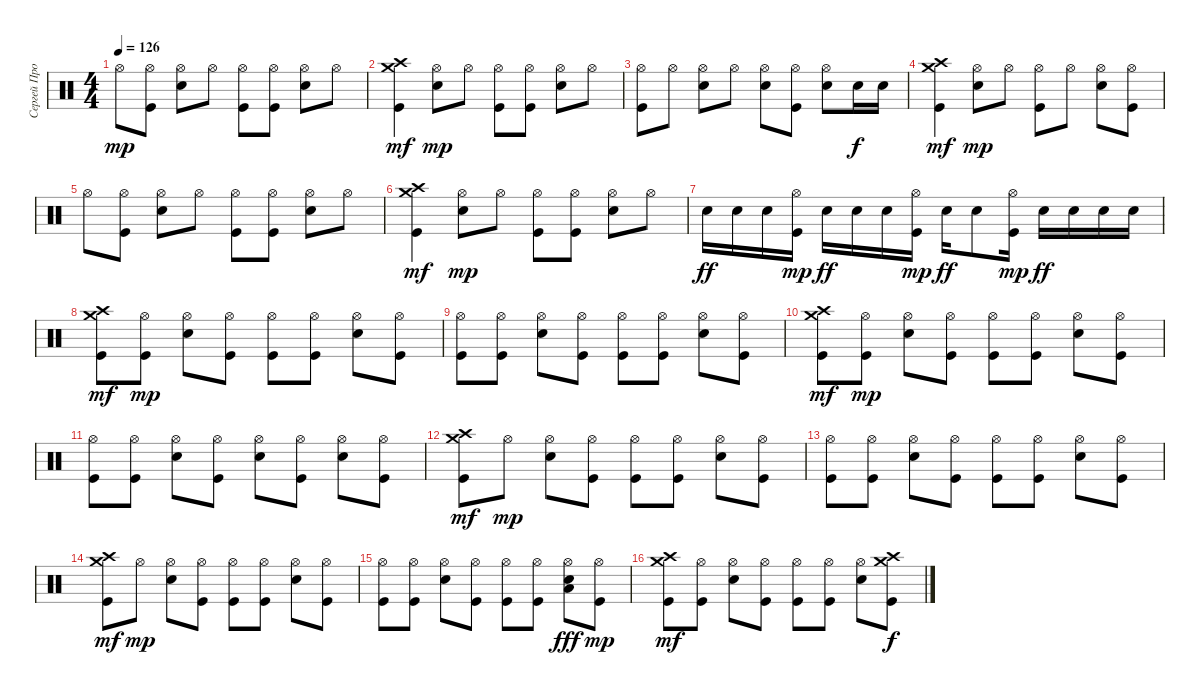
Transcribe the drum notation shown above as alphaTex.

\track ("Сергей Прокофьев (Барабаны)" "Сергей Про") {instrument percussion}
\staff {score}
\articulation defaults
\ts (4 4)
\tempo 126
\clef neutral
\ks c "Hi-Hat (open)".8{dy mp}
("Hi-Hat (open)" "Kick (hit)").8 ("Hi-Hat (open)" "Electric Snare (hit)").8 "Hi-Hat (open)".8 ("Hi-Hat (open)" "Kick (hit)").8 ("Hi-Hat (open)" "Kick (hit)").8 ("Hi-Hat (open)" "Electric Snare (hit)").8 "Hi-Hat (open)".8 |
("Crash high (hit)" "Crash medium (hit)" "Kick (hit)").4{dy mf} ("Hi-Hat (open)" "Electric Snare (hit)").8{dy mp} "Hi-Hat (open)".8 ("Hi-Hat (open)" "Kick (hit)").8 ("Hi-Hat (open)" "Kick (hit)").8 ("Hi-Hat (open)" "Electric Snare (hit)").8 "Hi-Hat (open)".8 |
("Hi-Hat (open)" "Kick (hit)").8 "Hi-Hat (open)".8 ("Hi-Hat (open)" "Electric Snare (hit)").8 "Hi-Hat (open)".8 ("Hi-Hat (open)" "Electric Snare (hit)").8 ("Hi-Hat (open)" "Kick (hit)").8 ("Hi-Hat (open)" "Electric Snare (hit)").8 "Electric Snare (hit)".16{dy f} "Electric Snare (hit)".16 |
("Crash high (hit)" "Crash medium (hit)" "Kick (hit)").4{dy mf} ("Hi-Hat (open)" "Electric Snare (hit)").8{dy mp} "Hi-Hat (open)".8 ("Hi-Hat (open)" "Kick (hit)").8 "Hi-Hat (open)".8 ("Hi-Hat (open)" "Electric Snare (hit)").8 ("Hi-Hat (open)" "Kick (hit)").8 |
"Hi-Hat (open)".8 ("Hi-Hat (open)" "Kick (hit)").8 ("Hi-Hat (open)" "Electric Snare (hit)").8 "Hi-Hat (open)".8 ("Hi-Hat (open)" "Kick (hit)").8 ("Hi-Hat (open)" "Kick (hit)").8 ("Hi-Hat (open)" "Electric Snare (hit)").8 "Hi-Hat (open)".8 |
("Crash high (hit)" "Crash medium (hit)" "Kick (hit)").4{dy mf} ("Hi-Hat (open)" "Electric Snare (hit)").8{dy mp} "Hi-Hat (open)".8 ("Hi-Hat (open)" "Kick (hit)").8 ("Hi-Hat (open)" "Kick (hit)").8 ("Hi-Hat (open)" "Electric Snare (hit)").8 "Hi-Hat (open)".8 |
\section ("" "")
"Electric Snare (hit)".16{dy ff volume 16} "Electric Snare (hit)".16 "Electric Snare (hit)".16 ("Hi-Hat (open)" "Kick (hit)").16{dy mp} "Electric Snare (hit)".16{dy ff} "Electric Snare (hit)".16 "Electric Snare (hit)".16 ("Hi-Hat (open)" "Kick (hit)").16{dy mp} "Electric Snare (hit)".16{dy ff} "Electric Snare (hit)".8 ("Hi-Hat (open)" "Kick (hit)").16{dy mp} "Electric Snare (hit)".16{dy ff} "Electric Snare (hit)".16 "Electric Snare (hit)".16 "Electric Snare (hit)".16 |
("Crash high (hit)" "Crash medium (hit)" "Kick (hit)").8{dy mf} ("Hi-Hat (open)" "Kick (hit)").8{dy mp} ("Hi-Hat (open)" "Electric Snare (hit)").8 ("Hi-Hat (open)" "Kick (hit)").8 ("Hi-Hat (open)" "Kick (hit)").8 ("Hi-Hat (open)" "Kick (hit)").8 ("Hi-Hat (open)" "Electric Snare (hit)").8 ("Hi-Hat (open)" "Kick (hit)").8 |
("Hi-Hat (open)" "Kick (hit)").8 ("Hi-Hat (open)" "Kick (hit)").8 ("Hi-Hat (open)" "Electric Snare (hit)").8 ("Hi-Hat (open)" "Kick (hit)").8 ("Hi-Hat (open)" "Kick (hit)").8 ("Hi-Hat (open)" "Kick (hit)").8 ("Hi-Hat (open)" "Electric Snare (hit)").8 ("Hi-Hat (open)" "Kick (hit)").8 |
("Crash high (hit)" "Crash medium (hit)" "Kick (hit)").8{dy mf} ("Hi-Hat (open)" "Kick (hit)").8{dy mp} ("Hi-Hat (open)" "Electric Snare (hit)").8 ("Hi-Hat (open)" "Kick (hit)").8 ("Hi-Hat (open)" "Kick (hit)").8 ("Hi-Hat (open)" "Kick (hit)").8 ("Hi-Hat (open)" "Electric Snare (hit)").8 ("Hi-Hat (open)" "Kick (hit)").8 |
("Hi-Hat (open)" "Kick (hit)").8 ("Hi-Hat (open)" "Kick (hit)").8 ("Hi-Hat (open)" "Electric Snare (hit)").8 ("Hi-Hat (open)" "Kick (hit)").8 ("Hi-Hat (open)" "Electric Snare (hit)").8 ("Hi-Hat (open)" "Kick (hit)").8 ("Hi-Hat (open)" "Electric Snare (hit)").8 ("Hi-Hat (open)" "Kick (hit)").8 |
("Crash high (hit)" "Crash medium (hit)" "Kick (hit)").8{dy mf} "Hi-Hat (open)".8{dy mp} ("Hi-Hat (open)" "Electric Snare (hit)").8 ("Hi-Hat (open)" "Kick (hit)").8 ("Hi-Hat (open)" "Kick (hit)").8 ("Hi-Hat (open)" "Kick (hit)").8 ("Hi-Hat (open)" "Electric Snare (hit)").8 ("Hi-Hat (open)" "Kick (hit)").8 |
("Hi-Hat (open)" "Kick (hit)").8 ("Hi-Hat (open)" "Kick (hit)").8 ("Hi-Hat (open)" "Electric Snare (hit)").8 ("Hi-Hat (open)" "Kick (hit)").8 ("Hi-Hat (open)" "Kick (hit)").8 ("Hi-Hat (open)" "Kick (hit)").8 ("Hi-Hat (open)" "Electric Snare (hit)").8 ("Hi-Hat (open)" "Kick (hit)").8 |
("Crash high (hit)" "Crash medium (hit)" "Kick (hit)").8{dy mf} "Hi-Hat (open)".8{dy mp} ("Hi-Hat (open)" "Electric Snare (hit)").8 ("Hi-Hat (open)" "Kick (hit)").8 ("Hi-Hat (open)" "Kick (hit)").8 ("Hi-Hat (open)" "Kick (hit)").8 ("Hi-Hat (open)" "Electric Snare (hit)").8 ("Hi-Hat (open)" "Kick (hit)").8 |
("Hi-Hat (open)" "Kick (hit)").8 ("Hi-Hat (open)" "Kick (hit)").8 ("Hi-Hat (open)" "Electric Snare (hit)").8 ("Hi-Hat (open)" "Kick (hit)").8 ("Hi-Hat (open)" "Kick (hit)").8 ("Hi-Hat (open)" "Kick (hit)").8 ("Hi-Hat (open)" "Electric Snare (hit)" "Low Floor Tom (hit)").8{dy fff} ("Hi-Hat (open)" "Kick (hit)").8{dy mp} |
("Crash high (hit)" "Crash medium (hit)" "Kick (hit)").8{dy mf} ("Hi-Hat (open)" "Kick (hit)").8 ("Hi-Hat (open)" "Electric Snare (hit)").8 ("Hi-Hat (open)" "Kick (hit)").8 ("Hi-Hat (open)" "Kick (hit)").8 ("Hi-Hat (open)" "Kick (hit)").8 ("Hi-Hat (open)" "Electric Snare (hit)").8 ("Crash medium (hit)" "Crash high (hit)" "Kick (hit)").8{dy f}
